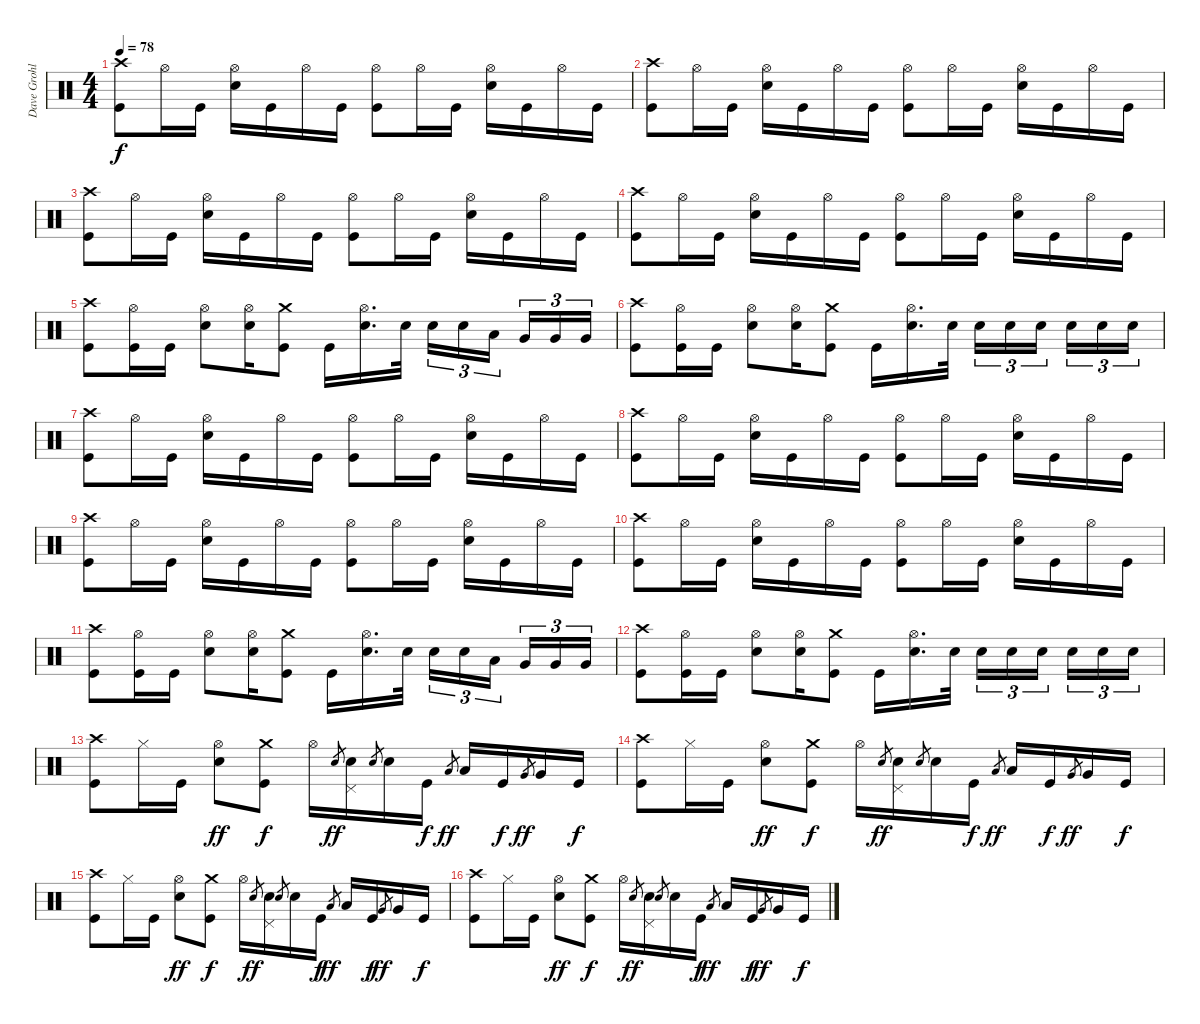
\track ("Dave Grohl" "Dave Grohl") {instrument percussion}
\staff {score}
\articulation defaults
\ts (4 4)
\tempo 78
\clef neutral
\ks c
("Crash high (hit)" "Kick (hit)").8{dy f} "Hi-Hat (open)".16 "Kick (hit)".16 ("Hi-Hat (open)" "Electric Snare (hit)").16 "Kick (hit)".16 "Hi-Hat (open)".16 "Kick (hit)".16 ("Hi-Hat (open)" "Kick (hit)").8 "Hi-Hat (open)".16 "Kick (hit)".16 ("Hi-Hat (open)" "Electric Snare (hit)").16 "Kick (hit)".16 "Hi-Hat (open)".16 "Kick (hit)".16 |
("Crash high (hit)" "Kick (hit)").8 "Hi-Hat (open)".16 "Kick (hit)".16 ("Hi-Hat (open)" "Electric Snare (hit)").16 "Kick (hit)".16 "Hi-Hat (open)".16 "Kick (hit)".16 ("Hi-Hat (open)" "Kick (hit)").8 "Hi-Hat (open)".16 "Kick (hit)".16 ("Hi-Hat (open)" "Electric Snare (hit)").16 "Kick (hit)".16 "Hi-Hat (open)".16 "Kick (hit)".16 |
("Crash high (hit)" "Kick (hit)").8 "Hi-Hat (open)".16 "Kick (hit)".16 ("Hi-Hat (open)" "Electric Snare (hit)").16 "Kick (hit)".16 "Hi-Hat (open)".16 "Kick (hit)".16 ("Hi-Hat (open)" "Kick (hit)").8 "Hi-Hat (open)".16 "Kick (hit)".16 ("Hi-Hat (open)" "Electric Snare (hit)").16 "Kick (hit)".16 "Hi-Hat (open)".16 "Kick (hit)".16 |
("Crash high (hit)" "Kick (hit)").8 "Hi-Hat (open)".16 "Kick (hit)".16 ("Hi-Hat (open)" "Electric Snare (hit)").16 "Kick (hit)".16 "Hi-Hat (open)".16 "Kick (hit)".16 ("Hi-Hat (open)" "Kick (hit)").8 "Hi-Hat (open)".16 "Kick (hit)".16 ("Hi-Hat (open)" "Electric Snare (hit)").16 "Kick (hit)".16 "Hi-Hat (open)".16 "Kick (hit)".16 |
("Crash high (hit)" "Kick (hit)").8 ("Hi-Hat (open)" "Kick (hit)").16 "Kick (hit)".16 ("Hi-Hat (open)" "Electric Snare (hit)").8 ("Hi-Hat (open)" "Electric Snare (hit)").16 ("Crash medium (hit)" "Kick (hit)").8 "Kick (hit)".16 ("Hi-Hat (open)" "Electric Snare (hit)").16{d} "Electric Snare (hit)".32 "Electric Snare (hit)".16{tu (3 2)} "Electric Snare (hit)".16{tu (3 2)} "Low Tom (hit)".16{tu (3 2) beam splitsecondary} "Very Low Tom (hit)".16{tu (3 2)} "Very Low Tom (hit)".16{tu (3 2)} "Very Low Tom (hit)".16{tu (3 2)} |
("Crash high (hit)" "Kick (hit)").8 ("Hi-Hat (open)" "Kick (hit)").16 "Kick (hit)".16 ("Hi-Hat (open)" "Electric Snare (hit)").8 ("Hi-Hat (open)" "Electric Snare (hit)").16 ("Crash medium (hit)" "Kick (hit)").8 "Kick (hit)".16 ("Hi-Hat (open)" "Electric Snare (hit)").16{d} "Electric Snare (hit)".32 "Electric Snare (hit)".16{tu (3 2)} "Electric Snare (hit)".16{tu (3 2)} "Electric Snare (hit)".16{tu (3 2) beam splitsecondary} "Electric Snare (hit)".16{tu (3 2)} "Electric Snare (hit)".16{tu (3 2)} "Electric Snare (hit)".16{tu (3 2)} |
("Crash high (hit)" "Kick (hit)").8 "Hi-Hat (open)".16 "Kick (hit)".16 ("Hi-Hat (open)" "Electric Snare (hit)").16 "Kick (hit)".16 "Hi-Hat (open)".16 "Kick (hit)".16 ("Hi-Hat (open)" "Kick (hit)").8 "Hi-Hat (open)".16 "Kick (hit)".16 ("Hi-Hat (open)" "Electric Snare (hit)").16 "Kick (hit)".16 "Hi-Hat (open)".16 "Kick (hit)".16 |
("Crash high (hit)" "Kick (hit)").8 "Hi-Hat (open)".16 "Kick (hit)".16 ("Hi-Hat (open)" "Electric Snare (hit)").16 "Kick (hit)".16 "Hi-Hat (open)".16 "Kick (hit)".16 ("Hi-Hat (open)" "Kick (hit)").8 "Hi-Hat (open)".16 "Kick (hit)".16 ("Hi-Hat (open)" "Electric Snare (hit)").16 "Kick (hit)".16 "Hi-Hat (open)".16 "Kick (hit)".16 |
("Crash high (hit)" "Kick (hit)").8 "Hi-Hat (open)".16 "Kick (hit)".16 ("Hi-Hat (open)" "Electric Snare (hit)").16 "Kick (hit)".16 "Hi-Hat (open)".16 "Kick (hit)".16 ("Hi-Hat (open)" "Kick (hit)").8 "Hi-Hat (open)".16 "Kick (hit)".16 ("Hi-Hat (open)" "Electric Snare (hit)").16 "Kick (hit)".16 "Hi-Hat (open)".16 "Kick (hit)".16 |
("Crash high (hit)" "Kick (hit)").8 "Hi-Hat (open)".16 "Kick (hit)".16 ("Hi-Hat (open)" "Electric Snare (hit)").16 "Kick (hit)".16 "Hi-Hat (open)".16 "Kick (hit)".16 ("Hi-Hat (open)" "Kick (hit)").8 "Hi-Hat (open)".16 "Kick (hit)".16 ("Hi-Hat (open)" "Electric Snare (hit)").16 "Kick (hit)".16 "Hi-Hat (open)".16 "Kick (hit)".16 |
("Crash high (hit)" "Kick (hit)").8 ("Hi-Hat (open)" "Kick (hit)").16 "Kick (hit)".16 ("Hi-Hat (open)" "Electric Snare (hit)").8 ("Hi-Hat (open)" "Electric Snare (hit)").16 ("Crash medium (hit)" "Kick (hit)").8 "Kick (hit)".16 ("Hi-Hat (open)" "Electric Snare (hit)").16{d} "Electric Snare (hit)".32 "Electric Snare (hit)".16{tu (3 2)} "Electric Snare (hit)".16{tu (3 2)} "Low Tom (hit)".16{tu (3 2) beam splitsecondary} "Very Low Tom (hit)".16{tu (3 2)} "Very Low Tom (hit)".16{tu (3 2)} "Very Low Tom (hit)".16{tu (3 2)} |
("Crash high (hit)" "Kick (hit)").8 ("Hi-Hat (open)" "Kick (hit)").16 "Kick (hit)".16 ("Hi-Hat (open)" "Electric Snare (hit)").8 ("Hi-Hat (open)" "Electric Snare (hit)").16 ("Crash medium (hit)" "Kick (hit)").8 "Kick (hit)".16 ("Hi-Hat (open)" "Electric Snare (hit)").16{d} "Electric Snare (hit)".32 "Electric Snare (hit)".16{tu (3 2)} "Electric Snare (hit)".16{tu (3 2)} "Electric Snare (hit)".16{tu (3 2) beam splitsecondary} "Electric Snare (hit)".16{tu (3 2)} "Electric Snare (hit)".16{tu (3 2)} "Electric Snare (hit)".16{tu (3 2)} |
("Crash high (hit)" "Kick (hit)").8 "Hi-Hat (closed)".16 "Kick (hit)".16 ("Hi-Hat (open)" "Electric Snare (hit)").8{dy ff} ("Crash medium (hit)" "Kick (hit)").8{dy f} "Hi-Hat (open)".16 "Electric Snare (hit)".8{gr dy ff} ("Pedal Hi-Hat (hit)" "Electric Snare (hit)").16 "Electric Snare (hit)".8{gr} "Electric Snare (hit)".16 "Kick (hit)".16{dy f} "Low Tom (hit)".8{gr dy ff} "Low Tom (hit)".16 "Kick (hit)".16{dy f} "Very Low Tom (hit)".8{gr dy ff} "Very Low Tom (hit)".16 "Kick (hit)".16{dy f} |
("Crash high (hit)" "Kick (hit)").8 "Hi-Hat (closed)".16 "Kick (hit)".16 ("Hi-Hat (open)" "Electric Snare (hit)").8{dy ff} ("Crash medium (hit)" "Kick (hit)").8{dy f} "Hi-Hat (open)".16 "Electric Snare (hit)".8{gr dy ff} ("Pedal Hi-Hat (hit)" "Electric Snare (hit)").16 "Electric Snare (hit)".8{gr} "Electric Snare (hit)".16 "Kick (hit)".16{dy f} "Low Tom (hit)".8{gr dy ff} "Low Tom (hit)".16 "Kick (hit)".16{dy f} "Very Low Tom (hit)".8{gr dy ff} "Very Low Tom (hit)".16 "Kick (hit)".16{dy f} |
("Crash high (hit)" "Kick (hit)").8 "Hi-Hat (closed)".16 "Kick (hit)".16 ("Hi-Hat (open)" "Electric Snare (hit)").8{dy ff} ("Crash medium (hit)" "Kick (hit)").8{dy f} "Hi-Hat (open)".16 "Electric Snare (hit)".8{gr dy ff} ("Pedal Hi-Hat (hit)" "Electric Snare (hit)").16 "Electric Snare (hit)".8{gr} "Electric Snare (hit)".16 "Kick (hit)".16{dy f} "Low Tom (hit)".8{gr dy ff} "Low Tom (hit)".16 "Kick (hit)".16{dy f} "Very Low Tom (hit)".8{gr dy ff} "Very Low Tom (hit)".16 "Kick (hit)".16{dy f} |
("Crash high (hit)" "Kick (hit)").8 "Hi-Hat (closed)".16 "Kick (hit)".16 ("Hi-Hat (open)" "Electric Snare (hit)").8{dy ff} ("Crash medium (hit)" "Kick (hit)").8{dy f} "Hi-Hat (open)".16 "Electric Snare (hit)".8{gr dy ff} ("Pedal Hi-Hat (hit)" "Electric Snare (hit)").16 "Electric Snare (hit)".8{gr} "Electric Snare (hit)".16 "Kick (hit)".16{dy f} "Low Tom (hit)".8{gr dy ff} "Low Tom (hit)".16 "Kick (hit)".16{dy f} "Very Low Tom (hit)".8{gr dy ff} "Very Low Tom (hit)".16 "Kick (hit)".16{dy f}
